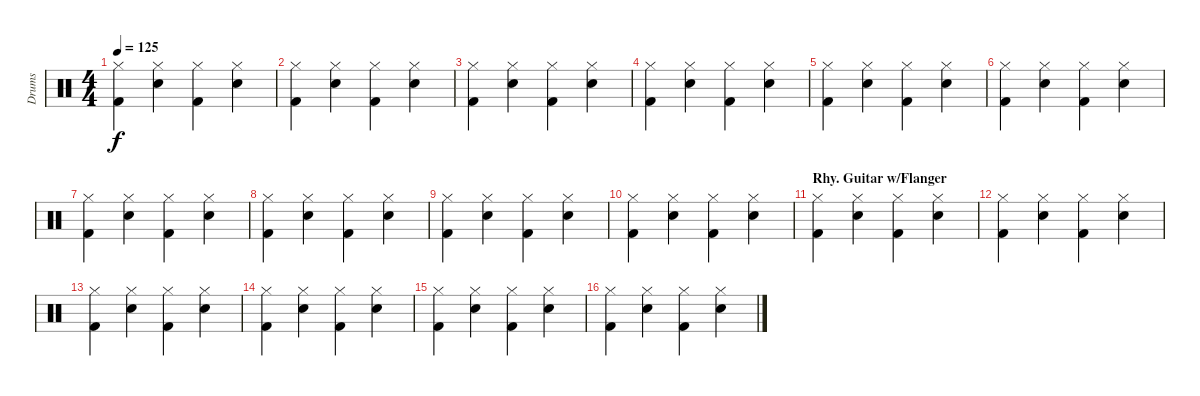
\track ("Drums" "Drums") {instrument percussion}
\staff {score}
\articulation defaults
\ts (4 4)
\tempo 125
\clef neutral
\ks c
("Hi-Hat (closed)" "Kick (hit) 2").4{dy f} ("Hi-Hat (closed)" "Snare (hit) 2").4 ("Hi-Hat (closed)" "Kick (hit) 2").4 ("Hi-Hat (closed)" "Snare (hit) 2").4 |
("Hi-Hat (closed)" "Kick (hit) 2").4 ("Hi-Hat (closed)" "Snare (hit) 2").4 ("Hi-Hat (closed)" "Kick (hit) 2").4 ("Hi-Hat (closed)" "Snare (hit) 2").4 |
("Hi-Hat (closed)" "Kick (hit) 2").4 ("Hi-Hat (closed)" "Snare (hit) 2").4 ("Hi-Hat (closed)" "Kick (hit) 2").4 ("Hi-Hat (closed)" "Snare (hit) 2").4 |
("Hi-Hat (closed)" "Kick (hit) 2").4 ("Hi-Hat (closed)" "Snare (hit) 2").4 ("Hi-Hat (closed)" "Kick (hit) 2").4 ("Hi-Hat (closed)" "Snare (hit) 2").4 |
("Hi-Hat (closed)" "Kick (hit) 2").4 ("Hi-Hat (closed)" "Snare (hit) 2").4 ("Hi-Hat (closed)" "Kick (hit) 2").4 ("Hi-Hat (closed)" "Snare (hit) 2").4 |
("Hi-Hat (closed)" "Kick (hit) 2").4 ("Hi-Hat (closed)" "Snare (hit) 2").4 ("Hi-Hat (closed)" "Kick (hit) 2").4 ("Hi-Hat (closed)" "Snare (hit) 2").4 |
("Hi-Hat (closed)" "Kick (hit) 2").4 ("Hi-Hat (closed)" "Snare (hit) 2").4 ("Hi-Hat (closed)" "Kick (hit) 2").4 ("Hi-Hat (closed)" "Snare (hit) 2").4 |
("Hi-Hat (closed)" "Kick (hit) 2").4 ("Hi-Hat (closed)" "Snare (hit) 2").4 ("Hi-Hat (closed)" "Kick (hit) 2").4 ("Hi-Hat (closed)" "Snare (hit) 2").4 |
("Hi-Hat (closed)" "Kick (hit) 2").4 ("Hi-Hat (closed)" "Snare (hit) 2").4 ("Hi-Hat (closed)" "Kick (hit) 2").4 ("Hi-Hat (closed)" "Snare (hit) 2").4 |
("Hi-Hat (closed)" "Kick (hit) 2").4 ("Hi-Hat (closed)" "Snare (hit) 2").4 ("Hi-Hat (closed)" "Kick (hit) 2").4 ("Hi-Hat (closed)" "Snare (hit) 2").4 |
\section ("" "Rhy. Guitar w/Flanger")
("Hi-Hat (closed)" "Kick (hit) 2").4 ("Hi-Hat (closed)" "Snare (hit) 2").4 ("Hi-Hat (closed)" "Kick (hit) 2").4 ("Hi-Hat (closed)" "Snare (hit) 2").4 |
("Hi-Hat (closed)" "Kick (hit) 2").4 ("Hi-Hat (closed)" "Snare (hit) 2").4 ("Hi-Hat (closed)" "Kick (hit) 2").4 ("Hi-Hat (closed)" "Snare (hit) 2").4 |
("Hi-Hat (closed)" "Kick (hit) 2").4 ("Hi-Hat (closed)" "Snare (hit) 2").4 ("Hi-Hat (closed)" "Kick (hit) 2").4 ("Hi-Hat (closed)" "Snare (hit) 2").4 |
("Hi-Hat (closed)" "Kick (hit) 2").4 ("Hi-Hat (closed)" "Snare (hit) 2").4 ("Hi-Hat (closed)" "Kick (hit) 2").4 ("Hi-Hat (closed)" "Snare (hit) 2").4 |
("Hi-Hat (closed)" "Kick (hit) 2").4 ("Hi-Hat (closed)" "Snare (hit) 2").4 ("Hi-Hat (closed)" "Kick (hit) 2").4 ("Hi-Hat (closed)" "Snare (hit) 2").4 |
("Hi-Hat (closed)" "Kick (hit) 2").4 ("Hi-Hat (closed)" "Snare (hit) 2").4 ("Hi-Hat (closed)" "Kick (hit) 2").4 ("Hi-Hat (closed)" "Snare (hit) 2").4
